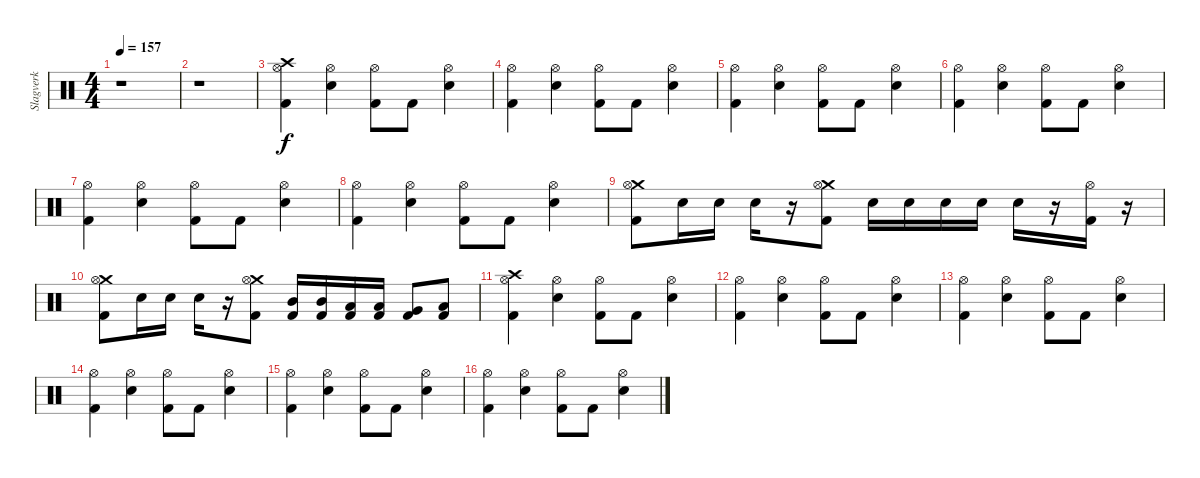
\track ("Slagverk" "Slagverk") {instrument percussion}
\staff {score}
\articulation defaults
\ts (4 4)
\tempo 157
\clef neutral
\ks c
r.1{dy f} |
r.1 |
("Crash high (hit)" "Hi-Hat (open)" "Kick (hit) 2").4 ("Hi-Hat (open)" "Snare (hit) 2").4 ("Hi-Hat (open)" "Kick (hit) 2").8 "Kick (hit) 2".8 ("Hi-Hat (open)" "Snare (hit) 2").4 |
("Hi-Hat (open)" "Kick (hit) 2").4 ("Hi-Hat (open)" "Snare (hit) 2").4 ("Hi-Hat (open)" "Kick (hit) 2").8 "Kick (hit) 2".8 ("Hi-Hat (open)" "Snare (hit) 2").4 |
("Hi-Hat (open)" "Kick (hit) 2").4 ("Hi-Hat (open)" "Snare (hit) 2").4 ("Hi-Hat (open)" "Kick (hit) 2").8 "Kick (hit) 2".8 ("Hi-Hat (open)" "Snare (hit) 2").4 |
("Hi-Hat (open)" "Kick (hit) 2").4 ("Hi-Hat (open)" "Snare (hit) 2").4 ("Hi-Hat (open)" "Kick (hit) 2").8 "Kick (hit) 2".8 ("Hi-Hat (open)" "Snare (hit) 2").4 |
("Hi-Hat (open)" "Kick (hit) 2").4 ("Hi-Hat (open)" "Snare (hit) 2").4 ("Hi-Hat (open)" "Kick (hit) 2").8 "Kick (hit) 2".8 ("Hi-Hat (open)" "Snare (hit) 2").4 |
("Hi-Hat (open)" "Kick (hit) 2").4 ("Hi-Hat (open)" "Snare (hit) 2").4 ("Hi-Hat (open)" "Kick (hit) 2").8 "Kick (hit) 2".8 ("Hi-Hat (open)" "Snare (hit) 2").4 |
("Crash medium (hit)" "Hi-Hat (open)" "Kick (hit) 2").8 "Snare (hit) 2".16 "Snare (hit) 2".16 "Snare (hit) 2".16 r.16 ("Crash medium (hit)" "Hi-Hat (open)" "Kick (hit) 2").8 "Snare (hit) 2".16 "Snare (hit) 2".16 "Snare (hit) 2".16 "Snare (hit) 2".16 "Snare (hit) 2".16 r.16 ("Hi-Hat (open)" "Kick (hit) 2").16 r.16 |
("Crash medium (hit)" "Hi-Hat (open)" "Kick (hit) 2").8 "Snare (hit) 2".16 "Snare (hit) 2".16 "Snare (hit) 2".16 r.16 ("Crash medium (hit)" "Hi-Hat (open)" "Kick (hit) 2").8 ("Mid Tom (hit)" "Kick (hit) 2").16 ("Mid Tom (hit)" "Kick (hit) 2").16 ("Low Tom (hit)" "Kick (hit) 2").16 ("Low Tom (hit)" "Kick (hit) 2").16 ("Very Low Tom (hit)" "Kick (hit) 2").8 ("Low Floor Tom (hit)" "Kick (hit) 2").8 |
("Crash high (hit)" "Hi-Hat (open)" "Kick (hit) 2").4 ("Hi-Hat (open)" "Snare (hit) 2").4 ("Hi-Hat (open)" "Kick (hit) 2").8 "Kick (hit) 2".8 ("Hi-Hat (open)" "Snare (hit) 2").4 |
("Hi-Hat (open)" "Kick (hit) 2").4 ("Hi-Hat (open)" "Snare (hit) 2").4 ("Hi-Hat (open)" "Kick (hit) 2").8 "Kick (hit) 2".8 ("Hi-Hat (open)" "Snare (hit) 2").4 |
("Hi-Hat (open)" "Kick (hit) 2").4 ("Hi-Hat (open)" "Snare (hit) 2").4 ("Hi-Hat (open)" "Kick (hit) 2").8 "Kick (hit) 2".8 ("Hi-Hat (open)" "Snare (hit) 2").4 |
("Hi-Hat (open)" "Kick (hit) 2").4 ("Hi-Hat (open)" "Snare (hit) 2").4 ("Hi-Hat (open)" "Kick (hit) 2").8 "Kick (hit) 2".8 ("Hi-Hat (open)" "Snare (hit) 2").4 |
("Hi-Hat (open)" "Kick (hit) 2").4 ("Hi-Hat (open)" "Snare (hit) 2").4 ("Hi-Hat (open)" "Kick (hit) 2").8 "Kick (hit) 2".8 ("Hi-Hat (open)" "Snare (hit) 2").4 |
("Hi-Hat (open)" "Kick (hit) 2").4 ("Hi-Hat (open)" "Snare (hit) 2").4 ("Hi-Hat (open)" "Kick (hit) 2").8 "Kick (hit) 2".8 ("Hi-Hat (open)" "Snare (hit) 2").4
